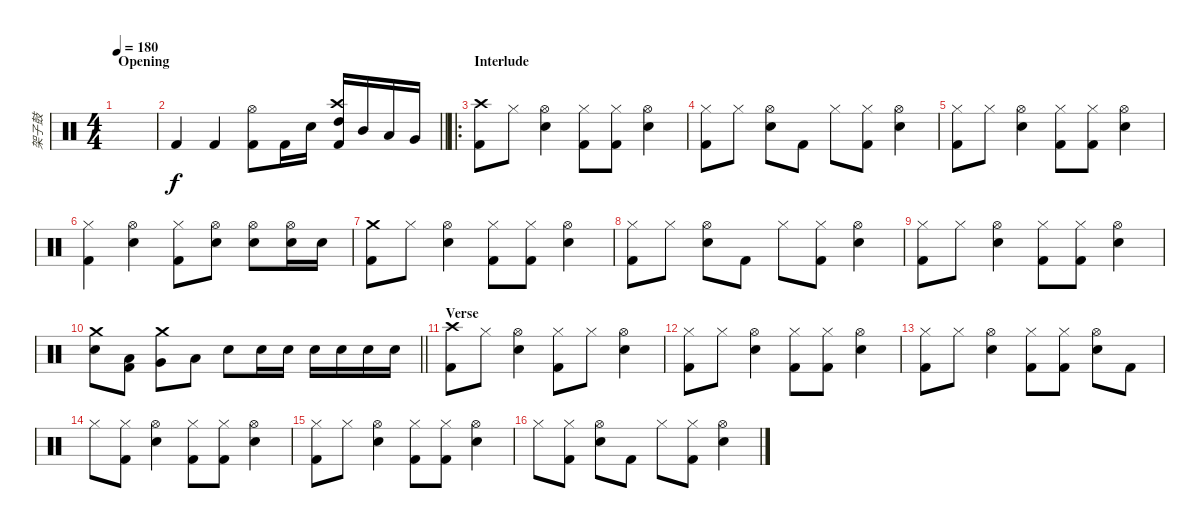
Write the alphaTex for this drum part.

\track ("架子鼓" "架子鼓") {instrument percussion}
\staff {score}
\articulation defaults
\ts (4 4)
\section ("" "Opening")
\tempo 180
\clef neutral
\ks c
|
\barLineRight lightlight "Kick (hit) 2".4 "Kick (hit) 2".4
("Hi-Hat (open)" "Kick (hit) 2").8 "Kick (hit) 2".16 "Snare (hit) 2".16 ("Crash high (hit)" "High Tom (hit)" "Kick (hit) 2").16 "Mid Tom (hit)".16 "Low Tom (hit)".16 "Very Low Tom (hit)".16 |
\ro
\section ("" "Interlude")
("Crash high (hit)" "Kick (hit) 2").8 "Hi-Hat (closed)".8 ("Hi-Hat (open)" "Snare (hit) 2").4 ("Hi-Hat (closed)" "Kick (hit) 2").8 ("Hi-Hat (closed)" "Kick (hit) 2").8 ("Hi-Hat (open)" "Snare (hit) 2").4 |
("Hi-Hat (closed)" "Kick (hit) 2").8 "Hi-Hat (closed)".8 ("Hi-Hat (open)" "Snare (hit) 2").8 "Kick (hit) 2".8 "Hi-Hat (closed)".8 ("Hi-Hat (closed)" "Kick (hit) 2").8 ("Hi-Hat (open)" "Snare (hit) 2").4 |
("Hi-Hat (closed)" "Kick (hit) 2").8 "Hi-Hat (closed)".8 ("Hi-Hat (open)" "Snare (hit) 2").4 ("Hi-Hat (closed)" "Kick (hit) 2").8 ("Hi-Hat (closed)" "Kick (hit) 2").8 ("Hi-Hat (open)" "Snare (hit) 2").4 |
("Hi-Hat (closed)" "Kick (hit) 2").4 ("Hi-Hat (open)" "Snare (hit) 2").4 ("Hi-Hat (closed)" "Kick (hit) 2").8 ("Hi-Hat (open)" "Snare (hit) 2").8 ("Hi-Hat (open)" "Snare (hit) 2").8 ("Hi-Hat (open)" "Snare (hit) 2").16 "Snare (hit) 2".16 |
("Crash medium (hit)" "Kick (hit) 2").8 "Hi-Hat (closed)".8 ("Hi-Hat (open)" "Snare (hit) 2").4 ("Hi-Hat (closed)" "Kick (hit) 2").8 ("Hi-Hat (closed)" "Kick (hit) 2").8 ("Hi-Hat (open)" "Snare (hit) 2").4 |
("Hi-Hat (closed)" "Kick (hit) 2").8 "Hi-Hat (closed)".8 ("Hi-Hat (open)" "Snare (hit) 2").8 "Kick (hit) 2".8 "Hi-Hat (closed)".8 ("Hi-Hat (closed)" "Kick (hit) 2").8 ("Hi-Hat (open)" "Snare (hit) 2").4 |
("Hi-Hat (closed)" "Kick (hit) 2").8 "Hi-Hat (closed)".8 ("Hi-Hat (open)" "Snare (hit) 2").4 ("Hi-Hat (closed)" "Kick (hit) 2").8 ("Hi-Hat (closed)" "Kick (hit) 2").8 ("Hi-Hat (open)" "Snare (hit) 2").4 |
\barLineRight lightlight
("Crash medium (hit)" "Snare (hit) 2").8 ("Low Tom (hit)" "Kick (hit) 2").8 ("Crash medium (hit)" "Very Low Tom (hit)").8 "Low Floor Tom (hit)".8 "Snare (hit) 2".8 "Snare (hit) 2".16 "Snare (hit) 2".16 "Snare (hit) 2".16 "Snare (hit) 2".16 "Snare (hit) 2".16 "Snare (hit) 2".16 |
\section ("" "Verse")
("Crash high (hit)" "Kick (hit) 2").8 "Hi-Hat (closed)".8 ("Hi-Hat (open)" "Snare (hit) 2").4 ("Hi-Hat (closed)" "Kick (hit) 2").8 "Hi-Hat (closed)".8 ("Hi-Hat (open)" "Snare (hit) 2").4 |
("Hi-Hat (closed)" "Kick (hit) 2").8 "Hi-Hat (closed)".8 ("Hi-Hat (open)" "Snare (hit) 2").4 ("Hi-Hat (closed)" "Kick (hit) 2").8 ("Hi-Hat (closed)" "Kick (hit) 2").8 ("Hi-Hat (open)" "Snare (hit) 2").4 |
("Hi-Hat (closed)" "Kick (hit) 2").8 "Hi-Hat (closed)".8 ("Hi-Hat (open)" "Snare (hit) 2").4 ("Hi-Hat (closed)" "Kick (hit) 2").8 ("Hi-Hat (closed)" "Kick (hit) 2").8 ("Hi-Hat (open)" "Snare (hit) 2").8 "Kick (hit) 2".8 |
"Hi-Hat (closed)".8 ("Hi-Hat (closed)" "Kick (hit) 2").8 ("Hi-Hat (open)" "Snare (hit) 2").4 ("Hi-Hat (closed)" "Kick (hit) 2").8 ("Hi-Hat (closed)" "Kick (hit) 2").8 ("Hi-Hat (open)" "Snare (hit) 2").4 |
("Hi-Hat (closed)" "Kick (hit) 2").8 "Hi-Hat (closed)".8 ("Hi-Hat (open)" "Snare (hit) 2").4 ("Hi-Hat (closed)" "Kick (hit) 2").8 ("Hi-Hat (closed)" "Kick (hit) 2").8 ("Hi-Hat (open)" "Snare (hit) 2").4 |
"Hi-Hat (closed)".8 ("Hi-Hat (closed)" "Kick (hit) 2").8 ("Hi-Hat (open)" "Snare (hit) 2").8 "Kick (hit) 2".8 "Hi-Hat (closed)".8 ("Hi-Hat (closed)" "Kick (hit) 2").8 ("Hi-Hat (open)" "Snare (hit) 2").4
